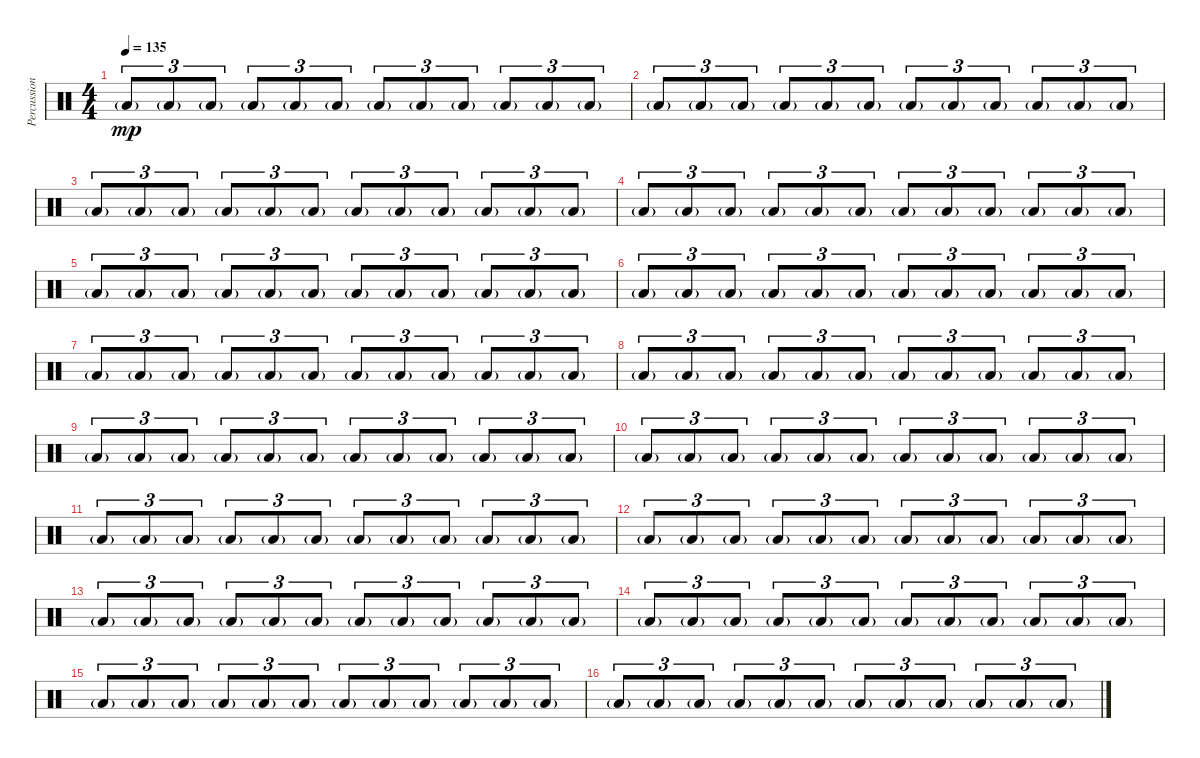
\track ("Percussion" "Percussion") {instrument percussion}
\staff {score}
\articulation defaults
\ts (4 4)
\tempo 135
\clef neutral
\ks c "Low Floor Tom (hit)"{g}.8{tu (3 2) dy mp} "Low Floor Tom (hit)"{g}.8{tu (3 2)} "Low Floor Tom (hit)"{g}.8{tu (3 2)} "Low Floor Tom (hit)"{g}.8{tu (3 2)} "Low Floor Tom (hit)"{g}.8{tu (3 2)} "Low Floor Tom (hit)"{g}.8{tu (3 2)} "Low Floor Tom (hit)"{g}.8{tu (3 2)} "Low Floor Tom (hit)"{g}.8{tu (3 2)} "Low Floor Tom (hit)"{g}.8{tu (3 2)} "Low Floor Tom (hit)"{g}.8{tu (3 2)} "Low Floor Tom (hit)"{g}.8{tu (3 2)} "Low Floor Tom (hit)"{g}.8{tu (3 2)}
|
"Low Floor Tom (hit)"{g}.8{tu (3 2)} "Low Floor Tom (hit)"{g}.8{tu (3 2)} "Low Floor Tom (hit)"{g}.8{tu (3 2)} "Low Floor Tom (hit)"{g}.8{tu (3 2)} "Low Floor Tom (hit)"{g}.8{tu (3 2)} "Low Floor Tom (hit)"{g}.8{tu (3 2)} "Low Floor Tom (hit)"{g}.8{tu (3 2)} "Low Floor Tom (hit)"{g}.8{tu (3 2)} "Low Floor Tom (hit)"{g}.8{tu (3 2)} "Low Floor Tom (hit)"{g}.8{tu (3 2)} "Low Floor Tom (hit)"{g}.8{tu (3 2)} "Low Floor Tom (hit)"{g}.8{tu (3 2)} |
"Low Floor Tom (hit)"{g}.8{tu (3 2)} "Low Floor Tom (hit)"{g}.8{tu (3 2)} "Low Floor Tom (hit)"{g}.8{tu (3 2)} "Low Floor Tom (hit)"{g}.8{tu (3 2)} "Low Floor Tom (hit)"{g}.8{tu (3 2)} "Low Floor Tom (hit)"{g}.8{tu (3 2)} "Low Floor Tom (hit)"{g}.8{tu (3 2)} "Low Floor Tom (hit)"{g}.8{tu (3 2)} "Low Floor Tom (hit)"{g}.8{tu (3 2)} "Low Floor Tom (hit)"{g}.8{tu (3 2)} "Low Floor Tom (hit)"{g}.8{tu (3 2)} "Low Floor Tom (hit)"{g}.8{tu (3 2)} |
"Low Floor Tom (hit)"{g}.8{tu (3 2)} "Low Floor Tom (hit)"{g}.8{tu (3 2)} "Low Floor Tom (hit)"{g}.8{tu (3 2)} "Low Floor Tom (hit)"{g}.8{tu (3 2)} "Low Floor Tom (hit)"{g}.8{tu (3 2)} "Low Floor Tom (hit)"{g}.8{tu (3 2)} "Low Floor Tom (hit)"{g}.8{tu (3 2)} "Low Floor Tom (hit)"{g}.8{tu (3 2)} "Low Floor Tom (hit)"{g}.8{tu (3 2)} "Low Floor Tom (hit)"{g}.8{tu (3 2)} "Low Floor Tom (hit)"{g}.8{tu (3 2)} "Low Floor Tom (hit)"{g}.8{tu (3 2)} |
"Low Floor Tom (hit)"{g}.8{tu (3 2)} "Low Floor Tom (hit)"{g}.8{tu (3 2)} "Low Floor Tom (hit)"{g}.8{tu (3 2)} "Low Floor Tom (hit)"{g}.8{tu (3 2)} "Low Floor Tom (hit)"{g}.8{tu (3 2)} "Low Floor Tom (hit)"{g}.8{tu (3 2)} "Low Floor Tom (hit)"{g}.8{tu (3 2)} "Low Floor Tom (hit)"{g}.8{tu (3 2)} "Low Floor Tom (hit)"{g}.8{tu (3 2)} "Low Floor Tom (hit)"{g}.8{tu (3 2)} "Low Floor Tom (hit)"{g}.8{tu (3 2)} "Low Floor Tom (hit)"{g}.8{tu (3 2)} |
"Low Floor Tom (hit)"{g}.8{tu (3 2)} "Low Floor Tom (hit)"{g}.8{tu (3 2)} "Low Floor Tom (hit)"{g}.8{tu (3 2)} "Low Floor Tom (hit)"{g}.8{tu (3 2)} "Low Floor Tom (hit)"{g}.8{tu (3 2)} "Low Floor Tom (hit)"{g}.8{tu (3 2)} "Low Floor Tom (hit)"{g}.8{tu (3 2)} "Low Floor Tom (hit)"{g}.8{tu (3 2)} "Low Floor Tom (hit)"{g}.8{tu (3 2)} "Low Floor Tom (hit)"{g}.8{tu (3 2)} "Low Floor Tom (hit)"{g}.8{tu (3 2)} "Low Floor Tom (hit)"{g}.8{tu (3 2)} |
"Low Floor Tom (hit)"{g}.8{tu (3 2)} "Low Floor Tom (hit)"{g}.8{tu (3 2)} "Low Floor Tom (hit)"{g}.8{tu (3 2)} "Low Floor Tom (hit)"{g}.8{tu (3 2)} "Low Floor Tom (hit)"{g}.8{tu (3 2)} "Low Floor Tom (hit)"{g}.8{tu (3 2)} "Low Floor Tom (hit)"{g}.8{tu (3 2)} "Low Floor Tom (hit)"{g}.8{tu (3 2)} "Low Floor Tom (hit)"{g}.8{tu (3 2)} "Low Floor Tom (hit)"{g}.8{tu (3 2)} "Low Floor Tom (hit)"{g}.8{tu (3 2)} "Low Floor Tom (hit)"{g}.8{tu (3 2)} |
"Low Floor Tom (hit)"{g}.8{tu (3 2)} "Low Floor Tom (hit)"{g}.8{tu (3 2)} "Low Floor Tom (hit)"{g}.8{tu (3 2)} "Low Floor Tom (hit)"{g}.8{tu (3 2)} "Low Floor Tom (hit)"{g}.8{tu (3 2)} "Low Floor Tom (hit)"{g}.8{tu (3 2)} "Low Floor Tom (hit)"{g}.8{tu (3 2)} "Low Floor Tom (hit)"{g}.8{tu (3 2)} "Low Floor Tom (hit)"{g}.8{tu (3 2)} "Low Floor Tom (hit)"{g}.8{tu (3 2)} "Low Floor Tom (hit)"{g}.8{tu (3 2)} "Low Floor Tom (hit)"{g}.8{tu (3 2)} |
"Low Floor Tom (hit)"{g}.8{tu (3 2)} "Low Floor Tom (hit)"{g}.8{tu (3 2)} "Low Floor Tom (hit)"{g}.8{tu (3 2)} "Low Floor Tom (hit)"{g}.8{tu (3 2)} "Low Floor Tom (hit)"{g}.8{tu (3 2)} "Low Floor Tom (hit)"{g}.8{tu (3 2)} "Low Floor Tom (hit)"{g}.8{tu (3 2)} "Low Floor Tom (hit)"{g}.8{tu (3 2)} "Low Floor Tom (hit)"{g}.8{tu (3 2)} "Low Floor Tom (hit)"{g}.8{tu (3 2)} "Low Floor Tom (hit)"{g}.8{tu (3 2)} "Low Floor Tom (hit)"{g}.8{tu (3 2)} |
"Low Floor Tom (hit)"{g}.8{tu (3 2)} "Low Floor Tom (hit)"{g}.8{tu (3 2)} "Low Floor Tom (hit)"{g}.8{tu (3 2)} "Low Floor Tom (hit)"{g}.8{tu (3 2)} "Low Floor Tom (hit)"{g}.8{tu (3 2)} "Low Floor Tom (hit)"{g}.8{tu (3 2)} "Low Floor Tom (hit)"{g}.8{tu (3 2)} "Low Floor Tom (hit)"{g}.8{tu (3 2)} "Low Floor Tom (hit)"{g}.8{tu (3 2)} "Low Floor Tom (hit)"{g}.8{tu (3 2)} "Low Floor Tom (hit)"{g}.8{tu (3 2)} "Low Floor Tom (hit)"{g}.8{tu (3 2)} |
"Low Floor Tom (hit)"{g}.8{tu (3 2)} "Low Floor Tom (hit)"{g}.8{tu (3 2)} "Low Floor Tom (hit)"{g}.8{tu (3 2)} "Low Floor Tom (hit)"{g}.8{tu (3 2)} "Low Floor Tom (hit)"{g}.8{tu (3 2)} "Low Floor Tom (hit)"{g}.8{tu (3 2)} "Low Floor Tom (hit)"{g}.8{tu (3 2)} "Low Floor Tom (hit)"{g}.8{tu (3 2)} "Low Floor Tom (hit)"{g}.8{tu (3 2)} "Low Floor Tom (hit)"{g}.8{tu (3 2)} "Low Floor Tom (hit)"{g}.8{tu (3 2)} "Low Floor Tom (hit)"{g}.8{tu (3 2)} |
"Low Floor Tom (hit)"{g}.8{tu (3 2)} "Low Floor Tom (hit)"{g}.8{tu (3 2)} "Low Floor Tom (hit)"{g}.8{tu (3 2)} "Low Floor Tom (hit)"{g}.8{tu (3 2)} "Low Floor Tom (hit)"{g}.8{tu (3 2)} "Low Floor Tom (hit)"{g}.8{tu (3 2)} "Low Floor Tom (hit)"{g}.8{tu (3 2)} "Low Floor Tom (hit)"{g}.8{tu (3 2)} "Low Floor Tom (hit)"{g}.8{tu (3 2)} "Low Floor Tom (hit)"{g}.8{tu (3 2)} "Low Floor Tom (hit)"{g}.8{tu (3 2)} "Low Floor Tom (hit)"{g}.8{tu (3 2)} |
"Low Floor Tom (hit)"{g}.8{tu (3 2)} "Low Floor Tom (hit)"{g}.8{tu (3 2)} "Low Floor Tom (hit)"{g}.8{tu (3 2)} "Low Floor Tom (hit)"{g}.8{tu (3 2)} "Low Floor Tom (hit)"{g}.8{tu (3 2)} "Low Floor Tom (hit)"{g}.8{tu (3 2)} "Low Floor Tom (hit)"{g}.8{tu (3 2)} "Low Floor Tom (hit)"{g}.8{tu (3 2)} "Low Floor Tom (hit)"{g}.8{tu (3 2)} "Low Floor Tom (hit)"{g}.8{tu (3 2)} "Low Floor Tom (hit)"{g}.8{tu (3 2)} "Low Floor Tom (hit)"{g}.8{tu (3 2)} |
"Low Floor Tom (hit)"{g}.8{tu (3 2)} "Low Floor Tom (hit)"{g}.8{tu (3 2)} "Low Floor Tom (hit)"{g}.8{tu (3 2)} "Low Floor Tom (hit)"{g}.8{tu (3 2)} "Low Floor Tom (hit)"{g}.8{tu (3 2)} "Low Floor Tom (hit)"{g}.8{tu (3 2)} "Low Floor Tom (hit)"{g}.8{tu (3 2)} "Low Floor Tom (hit)"{g}.8{tu (3 2)} "Low Floor Tom (hit)"{g}.8{tu (3 2)} "Low Floor Tom (hit)"{g}.8{tu (3 2)} "Low Floor Tom (hit)"{g}.8{tu (3 2)} "Low Floor Tom (hit)"{g}.8{tu (3 2)} |
"Low Floor Tom (hit)"{g}.8{tu (3 2)} "Low Floor Tom (hit)"{g}.8{tu (3 2)} "Low Floor Tom (hit)"{g}.8{tu (3 2)} "Low Floor Tom (hit)"{g}.8{tu (3 2)} "Low Floor Tom (hit)"{g}.8{tu (3 2)} "Low Floor Tom (hit)"{g}.8{tu (3 2)} "Low Floor Tom (hit)"{g}.8{tu (3 2)} "Low Floor Tom (hit)"{g}.8{tu (3 2)} "Low Floor Tom (hit)"{g}.8{tu (3 2)} "Low Floor Tom (hit)"{g}.8{tu (3 2)} "Low Floor Tom (hit)"{g}.8{tu (3 2)} "Low Floor Tom (hit)"{g}.8{tu (3 2)} |
"Low Floor Tom (hit)"{g}.8{tu (3 2)} "Low Floor Tom (hit)"{g}.8{tu (3 2)} "Low Floor Tom (hit)"{g}.8{tu (3 2)} "Low Floor Tom (hit)"{g}.8{tu (3 2)} "Low Floor Tom (hit)"{g}.8{tu (3 2)} "Low Floor Tom (hit)"{g}.8{tu (3 2)} "Low Floor Tom (hit)"{g}.8{tu (3 2)} "Low Floor Tom (hit)"{g}.8{tu (3 2)} "Low Floor Tom (hit)"{g}.8{tu (3 2)} "Low Floor Tom (hit)"{g}.8{tu (3 2)} "Low Floor Tom (hit)"{g}.8{tu (3 2)} "Low Floor Tom (hit)"{g}.8{tu (3 2)}
